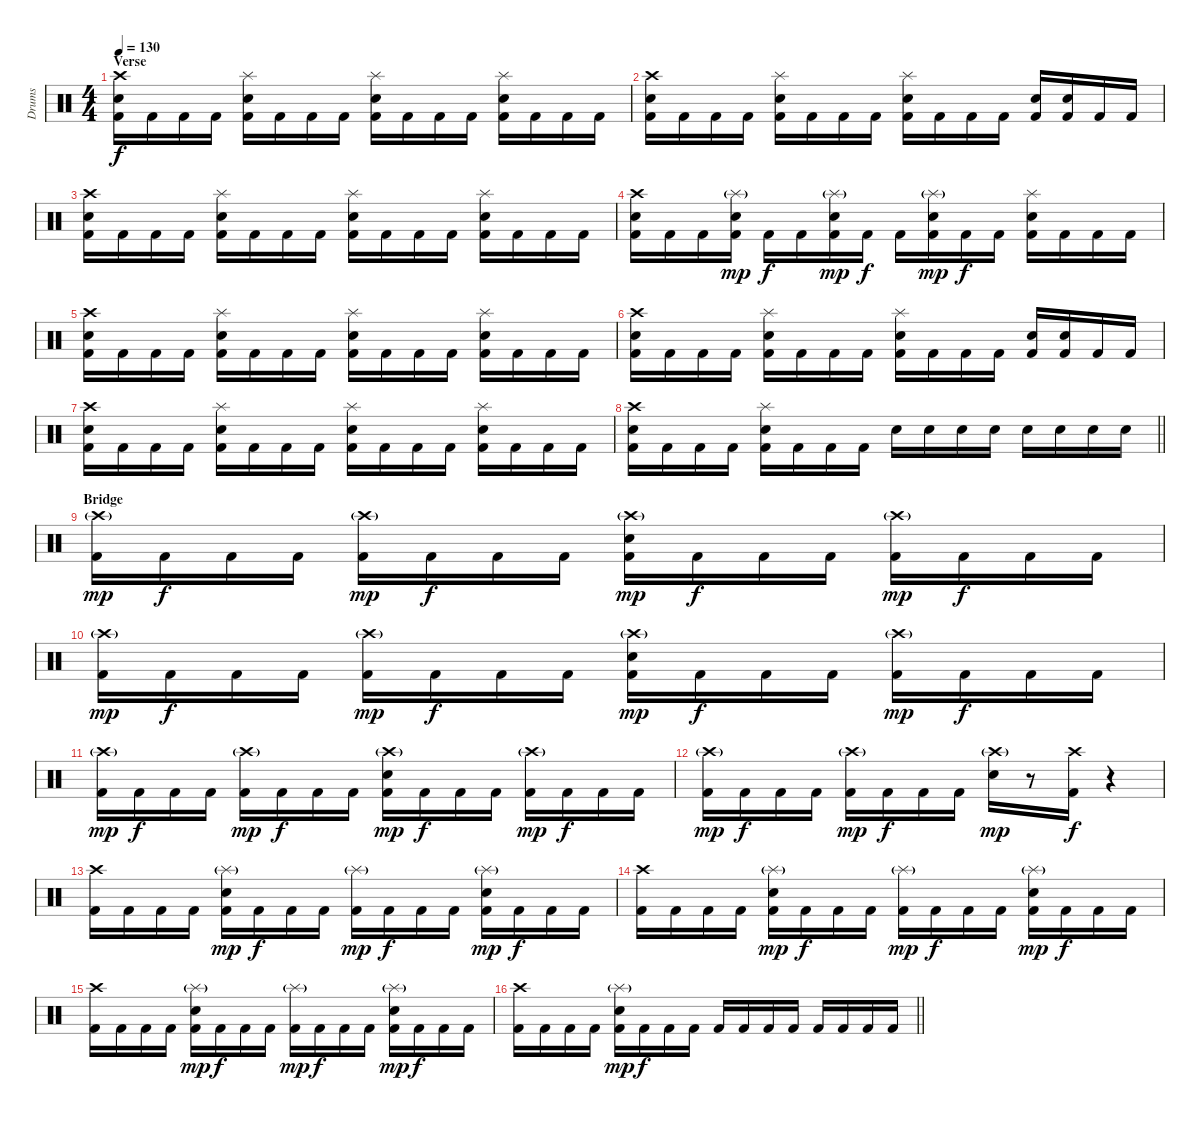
\track ("Drums" "Drums") {instrument percussion}
\staff {score}
\articulation defaults
\ts (4 4)
\section ("" "Verse")
\tempo 130
\clef neutral
\ks c
("Crash high (hit)" "Electric Snare (hit)" "Kick (hit) 2").16{dy f} "Kick (hit) 2".16 "Kick (hit) 2".16 "Kick (hit) 2".16 ("Splash (hit)" "Electric Snare (hit)" "Kick (hit) 2").16 "Kick (hit) 2".16 "Kick (hit) 2".16 "Kick (hit) 2".16 ("Splash (hit)" "Electric Snare (hit)" "Kick (hit) 2").16 "Kick (hit) 2".16 "Kick (hit) 2".16 "Kick (hit) 2".16 ("Splash (hit)" "Electric Snare (hit)" "Kick (hit) 2").16 "Kick (hit) 2".16 "Kick (hit) 2".16 "Kick (hit) 2".16 |
("Crash high (hit)" "Electric Snare (hit)" "Kick (hit) 2").16 "Kick (hit) 2".16 "Kick (hit) 2".16 "Kick (hit) 2".16 ("Splash (hit)" "Electric Snare (hit)" "Kick (hit) 2").16 "Kick (hit) 2".16 "Kick (hit) 2".16 "Kick (hit) 2".16 ("Splash (hit)" "Electric Snare (hit)" "Kick (hit) 2").16 "Kick (hit) 2".16 "Kick (hit) 2".16 "Kick (hit) 2".16 ("Electric Snare (hit)" "Kick (hit) 2").16 ("Electric Snare (hit)" "Kick (hit) 2").16 "Kick (hit) 2".16 "Kick (hit) 2".16 |
("Crash high (hit)" "Electric Snare (hit)" "Kick (hit) 2").16 "Kick (hit) 2".16 "Kick (hit) 2".16 "Kick (hit) 2".16 ("Splash (hit)" "Electric Snare (hit)" "Kick (hit) 2").16 "Kick (hit) 2".16 "Kick (hit) 2".16 "Kick (hit) 2".16 ("Splash (hit)" "Electric Snare (hit)" "Kick (hit) 2").16 "Kick (hit) 2".16 "Kick (hit) 2".16 "Kick (hit) 2".16 ("Splash (hit)" "Electric Snare (hit)" "Kick (hit) 2").16 "Kick (hit) 2".16 "Kick (hit) 2".16 "Kick (hit) 2".16 |
("Crash high (hit)" "Electric Snare (hit)" "Kick (hit) 2").16 "Kick (hit) 2".16 "Kick (hit) 2".16 ("Splash (hit)"{g} "Electric Snare (hit)" "Kick (hit) 2").16{dy mp} "Kick (hit) 2".16{dy f} "Kick (hit) 2".16 ("Splash (hit)"{g} "Electric Snare (hit)" "Kick (hit) 2").16{dy mp} "Kick (hit) 2".16{dy f} "Kick (hit) 2".16 ("Splash (hit)"{g} "Electric Snare (hit)" "Kick (hit) 2").16{dy mp} "Kick (hit) 2".16{dy f} "Kick (hit) 2".16 ("Splash (hit)" "Electric Snare (hit)" "Kick (hit) 2").16 "Kick (hit) 2".16 "Kick (hit) 2".16 "Kick (hit) 2".16 |
("Crash high (hit)" "Electric Snare (hit)" "Kick (hit) 2").16 "Kick (hit) 2".16 "Kick (hit) 2".16 "Kick (hit) 2".16 ("Splash (hit)" "Electric Snare (hit)" "Kick (hit) 2").16 "Kick (hit) 2".16 "Kick (hit) 2".16 "Kick (hit) 2".16 ("Splash (hit)" "Electric Snare (hit)" "Kick (hit) 2").16 "Kick (hit) 2".16 "Kick (hit) 2".16 "Kick (hit) 2".16 ("Splash (hit)" "Electric Snare (hit)" "Kick (hit) 2").16 "Kick (hit) 2".16 "Kick (hit) 2".16 "Kick (hit) 2".16 |
("Crash high (hit)" "Electric Snare (hit)" "Kick (hit) 2").16 "Kick (hit) 2".16 "Kick (hit) 2".16 "Kick (hit) 2".16 ("Splash (hit)" "Electric Snare (hit)" "Kick (hit) 2").16 "Kick (hit) 2".16 "Kick (hit) 2".16 "Kick (hit) 2".16 ("Splash (hit)" "Electric Snare (hit)" "Kick (hit) 2").16 "Kick (hit) 2".16 "Kick (hit) 2".16 "Kick (hit) 2".16 ("Electric Snare (hit)" "Kick (hit) 2").16 ("Electric Snare (hit)" "Kick (hit) 2").16 "Kick (hit) 2".16 "Kick (hit) 2".16 |
("Crash high (hit)" "Electric Snare (hit)" "Kick (hit) 2").16 "Kick (hit) 2".16 "Kick (hit) 2".16 "Kick (hit) 2".16 ("Splash (hit)" "Electric Snare (hit)" "Kick (hit) 2").16 "Kick (hit) 2".16 "Kick (hit) 2".16 "Kick (hit) 2".16 ("Splash (hit)" "Electric Snare (hit)" "Kick (hit) 2").16 "Kick (hit) 2".16 "Kick (hit) 2".16 "Kick (hit) 2".16 ("Splash (hit)" "Electric Snare (hit)" "Kick (hit) 2").16 "Kick (hit) 2".16 "Kick (hit) 2".16 "Kick (hit) 2".16 |
\barLineRight lightlight
("Crash high (hit)" "Electric Snare (hit)" "Kick (hit) 2").16 "Kick (hit) 2".16 "Kick (hit) 2".16 "Kick (hit) 2".16 ("Splash (hit)" "Electric Snare (hit)" "Kick (hit) 2").16 "Kick (hit) 2".16 "Kick (hit) 2".16 "Kick (hit) 2".16 "Electric Snare (hit)".16 "Electric Snare (hit)".16 "Electric Snare (hit)".16 "Electric Snare (hit)".16 "Electric Snare (hit)".16 "Electric Snare (hit)".16 "Electric Snare (hit)".16 "Electric Snare (hit)".16 |
\section ("" "Bridge")
("Crash high (hit)"{g} "Kick (hit) 2").16{dy mp} "Kick (hit) 2".16{dy f} "Kick (hit) 2".16 "Kick (hit) 2".16 ("Crash high (hit)"{g} "Kick (hit) 2").16{dy mp} "Kick (hit) 2".16{dy f} "Kick (hit) 2".16 "Kick (hit) 2".16 ("Crash high (hit)"{g} "Electric Snare (hit)" "Kick (hit) 2").16{dy mp} "Kick (hit) 2".16{dy f} "Kick (hit) 2".16 "Kick (hit) 2".16 ("Crash high (hit)"{g} "Kick (hit) 2").16{dy mp} "Kick (hit) 2".16{dy f} "Kick (hit) 2".16 "Kick (hit) 2".16 |
("Crash high (hit)"{g} "Kick (hit) 2").16{dy mp} "Kick (hit) 2".16{dy f} "Kick (hit) 2".16 "Kick (hit) 2".16 ("Crash high (hit)"{g} "Kick (hit) 2").16{dy mp} "Kick (hit) 2".16{dy f} "Kick (hit) 2".16 "Kick (hit) 2".16 ("Crash high (hit)"{g} "Electric Snare (hit)" "Kick (hit) 2").16{dy mp} "Kick (hit) 2".16{dy f} "Kick (hit) 2".16 "Kick (hit) 2".16 ("Crash high (hit)"{g} "Kick (hit) 2").16{dy mp} "Kick (hit) 2".16{dy f} "Kick (hit) 2".16 "Kick (hit) 2".16 |
("Crash high (hit)"{g} "Kick (hit) 2").16{dy mp} "Kick (hit) 2".16{dy f} "Kick (hit) 2".16 "Kick (hit) 2".16 ("Crash high (hit)"{g} "Kick (hit) 2").16{dy mp} "Kick (hit) 2".16{dy f} "Kick (hit) 2".16 "Kick (hit) 2".16 ("Crash high (hit)"{g} "Electric Snare (hit)" "Kick (hit) 2").16{dy mp} "Kick (hit) 2".16{dy f} "Kick (hit) 2".16 "Kick (hit) 2".16 ("Crash high (hit)"{g} "Kick (hit) 2").16{dy mp} "Kick (hit) 2".16{dy f} "Kick (hit) 2".16 "Kick (hit) 2".16 |
("Crash high (hit)"{g} "Kick (hit) 2").16{dy mp} "Kick (hit) 2".16{dy f} "Kick (hit) 2".16 "Kick (hit) 2".16 ("Crash high (hit)"{g} "Kick (hit) 2").16{dy mp} "Kick (hit) 2".16{dy f} "Kick (hit) 2".16 "Kick (hit) 2".16 ("Crash high (hit)"{g} "Electric Snare (hit)").16{dy mp} r.8 ("Crash high (hit)" "Kick (hit) 2").16{dy f} r.4 |
("Crash high (hit)" "Kick (hit) 2").16 "Kick (hit) 2".16 "Kick (hit) 2".16 "Kick (hit) 2".16 ("Splash (hit)"{g} "Electric Snare (hit)" "Kick (hit) 2").16{dy mp} "Kick (hit) 2".16{dy f} "Kick (hit) 2".16 "Kick (hit) 2".16 ("Splash (hit)"{g} "Kick (hit) 2").16{dy mp} "Kick (hit) 2".16{dy f} "Kick (hit) 2".16 "Kick (hit) 2".16 ("Splash (hit)"{g} "Electric Snare (hit)" "Kick (hit) 2").16{dy mp} "Kick (hit) 2".16{dy f} "Kick (hit) 2".16 "Kick (hit) 2".16 |
("Crash high (hit)" "Kick (hit) 2").16 "Kick (hit) 2".16 "Kick (hit) 2".16 "Kick (hit) 2".16 ("Splash (hit)"{g} "Electric Snare (hit)" "Kick (hit) 2").16{dy mp} "Kick (hit) 2".16{dy f} "Kick (hit) 2".16 "Kick (hit) 2".16 ("Splash (hit)"{g} "Kick (hit) 2").16{dy mp} "Kick (hit) 2".16{dy f} "Kick (hit) 2".16 "Kick (hit) 2".16 ("Splash (hit)"{g} "Electric Snare (hit)" "Kick (hit) 2").16{dy mp} "Kick (hit) 2".16{dy f} "Kick (hit) 2".16 "Kick (hit) 2".16 |
("Crash high (hit)" "Kick (hit) 2").16 "Kick (hit) 2".16 "Kick (hit) 2".16 "Kick (hit) 2".16 ("Splash (hit)"{g} "Electric Snare (hit)" "Kick (hit) 2").16{dy mp} "Kick (hit) 2".16{dy f} "Kick (hit) 2".16 "Kick (hit) 2".16 ("Splash (hit)"{g} "Kick (hit) 2").16{dy mp} "Kick (hit) 2".16{dy f} "Kick (hit) 2".16 "Kick (hit) 2".16 ("Splash (hit)"{g} "Electric Snare (hit)" "Kick (hit) 2").16{dy mp} "Kick (hit) 2".16{dy f} "Kick (hit) 2".16 "Kick (hit) 2".16 |
\barLineRight lightlight
("Crash high (hit)" "Kick (hit) 2").16 "Kick (hit) 2".16 "Kick (hit) 2".16 "Kick (hit) 2".16 ("Splash (hit)"{g} "Electric Snare (hit)" "Kick (hit) 2").16{dy mp} "Kick (hit) 2".16{dy f} "Kick (hit) 2".16 "Kick (hit) 2".16 "Kick (hit) 2".16 "Kick (hit) 2".16 "Kick (hit) 2".16 "Kick (hit) 2".16 "Kick (hit) 2".16 "Kick (hit) 2".16 "Kick (hit) 2".16 "Kick (hit) 2".16
